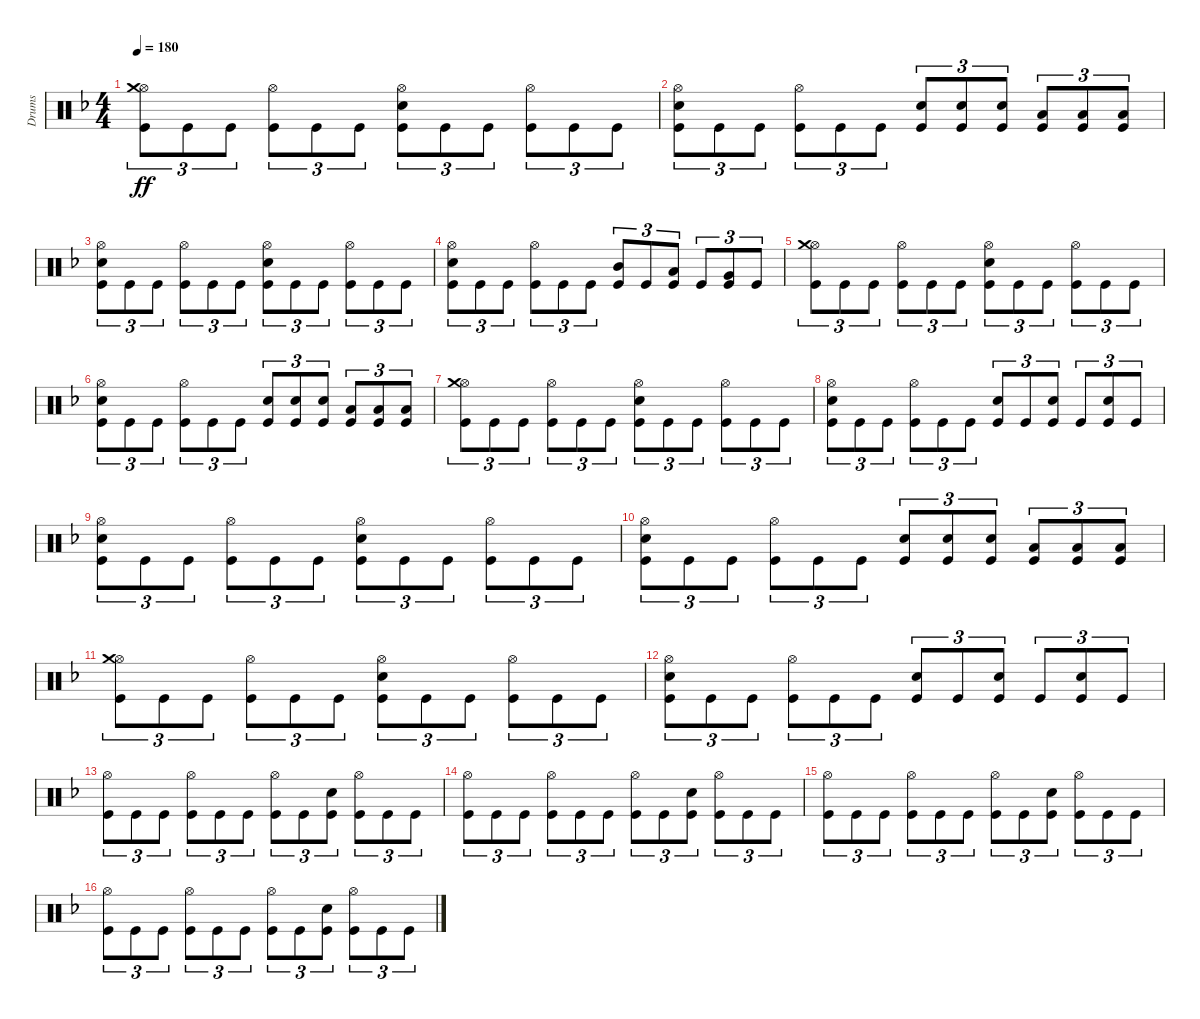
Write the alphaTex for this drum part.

\track ("Drums" "Drums") {instrument percussion}
\staff {score}
\articulation defaults
\ts (4 4)
\tempo 180
\clef neutral
\ks dminor
("Hi-Hat (open)" "Crash medium (hit)" "Kick (hit)").8{tu (3 2) dy ff} "Kick (hit)".8{tu (3 2)} "Kick (hit)".8{tu (3 2)} ("Hi-Hat (open)" "Kick (hit)").8{tu (3 2)} "Kick (hit)".8{tu (3 2)} "Kick (hit)".8{tu (3 2)} ("Hi-Hat (open)" "Snare (hit) 2" "Kick (hit)").8{tu (3 2)} "Kick (hit)".8{tu (3 2)} "Kick (hit)".8{tu (3 2)} ("Hi-Hat (open)" "Kick (hit)").8{tu (3 2)} "Kick (hit)".8{tu (3 2)} "Kick (hit)".8{tu (3 2)} |
("Hi-Hat (open)" "Snare (hit) 2" "Kick (hit)").8{tu (3 2)} "Kick (hit)".8{tu (3 2)} "Kick (hit)".8{tu (3 2)} ("Hi-Hat (open)" "Kick (hit)").8{tu (3 2)} "Kick (hit)".8{tu (3 2)} "Kick (hit)".8{tu (3 2)} ("Snare (hit) 2" "Kick (hit)").8{tu (3 2)} ("Snare (hit) 2" "Kick (hit)").8{tu (3 2)} ("Snare (hit) 2" "Kick (hit)").8{tu (3 2)} ("Low Tom (hit)" "Kick (hit)").8{tu (3 2)} ("Low Tom (hit)" "Kick (hit)").8{tu (3 2)} ("Low Tom (hit)" "Kick (hit)").8{tu (3 2)} |
("Hi-Hat (open)" "Snare (hit) 2" "Kick (hit)").8{tu (3 2)} "Kick (hit)".8{tu (3 2)} "Kick (hit)".8{tu (3 2)} ("Hi-Hat (open)" "Kick (hit)").8{tu (3 2)} "Kick (hit)".8{tu (3 2)} "Kick (hit)".8{tu (3 2)} ("Hi-Hat (open)" "Snare (hit) 2" "Kick (hit)").8{tu (3 2)} "Kick (hit)".8{tu (3 2)} "Kick (hit)".8{tu (3 2)} ("Hi-Hat (open)" "Kick (hit)").8{tu (3 2)} "Kick (hit)".8{tu (3 2)} "Kick (hit)".8{tu (3 2)} |
("Hi-Hat (open)" "Snare (hit) 2" "Kick (hit)").8{tu (3 2)} "Kick (hit)".8{tu (3 2)} "Kick (hit)".8{tu (3 2)} ("Hi-Hat (open)" "Kick (hit)").8{tu (3 2)} "Kick (hit)".8{tu (3 2)} "Kick (hit)".8{tu (3 2)} ("Mid Tom (hit)" "Kick (hit)").8{tu (3 2)} "Kick (hit)".8{tu (3 2)} ("Low Tom (hit)" "Kick (hit)").8{tu (3 2)} "Kick (hit)".8{tu (3 2)} ("Very Low Tom (hit)" "Kick (hit)").8{tu (3 2)} "Kick (hit)".8{tu (3 2)} |
("Hi-Hat (open)" "Crash medium (hit)" "Kick (hit)").8{tu (3 2)} "Kick (hit)".8{tu (3 2)} "Kick (hit)".8{tu (3 2)} ("Hi-Hat (open)" "Kick (hit)").8{tu (3 2)} "Kick (hit)".8{tu (3 2)} "Kick (hit)".8{tu (3 2)} ("Hi-Hat (open)" "Snare (hit) 2" "Kick (hit)").8{tu (3 2)} "Kick (hit)".8{tu (3 2)} "Kick (hit)".8{tu (3 2)} ("Hi-Hat (open)" "Kick (hit)").8{tu (3 2)} "Kick (hit)".8{tu (3 2)} "Kick (hit)".8{tu (3 2)} |
("Hi-Hat (open)" "Snare (hit) 2" "Kick (hit)").8{tu (3 2)} "Kick (hit)".8{tu (3 2)} "Kick (hit)".8{tu (3 2)} ("Hi-Hat (open)" "Kick (hit)").8{tu (3 2)} "Kick (hit)".8{tu (3 2)} "Kick (hit)".8{tu (3 2)} ("Snare (hit) 2" "Kick (hit)").8{tu (3 2)} ("Snare (hit) 2" "Kick (hit)").8{tu (3 2)} ("Snare (hit) 2" "Kick (hit)").8{tu (3 2)} ("Low Tom (hit)" "Kick (hit)").8{tu (3 2)} ("Low Tom (hit)" "Kick (hit)").8{tu (3 2)} ("Low Tom (hit)" "Kick (hit)").8{tu (3 2)} |
("Hi-Hat (open)" "Crash medium (hit)" "Kick (hit)").8{tu (3 2)} "Kick (hit)".8{tu (3 2)} "Kick (hit)".8{tu (3 2)} ("Hi-Hat (open)" "Kick (hit)").8{tu (3 2)} "Kick (hit)".8{tu (3 2)} "Kick (hit)".8{tu (3 2)} ("Hi-Hat (open)" "Snare (hit) 2" "Kick (hit)").8{tu (3 2)} "Kick (hit)".8{tu (3 2)} "Kick (hit)".8{tu (3 2)} ("Hi-Hat (open)" "Kick (hit)").8{tu (3 2)} "Kick (hit)".8{tu (3 2)} "Kick (hit)".8{tu (3 2)} |
("Hi-Hat (open)" "Snare (hit) 2" "Kick (hit)").8{tu (3 2)} "Kick (hit)".8{tu (3 2)} "Kick (hit)".8{tu (3 2)} ("Hi-Hat (open)" "Kick (hit)").8{tu (3 2)} "Kick (hit)".8{tu (3 2)} "Kick (hit)".8{tu (3 2)} ("Snare (hit) 2" "Kick (hit)").8{tu (3 2)} "Kick (hit)".8{tu (3 2)} ("Snare (hit) 2" "Kick (hit)").8{tu (3 2)} "Kick (hit)".8{tu (3 2)} ("Snare (hit) 2" "Kick (hit)").8{tu (3 2)} "Kick (hit)".8{tu (3 2)} |
("Hi-Hat (open)" "Snare (hit) 2" "Kick (hit)").8{tu (3 2)} "Kick (hit)".8{tu (3 2)} "Kick (hit)".8{tu (3 2)} ("Hi-Hat (open)" "Kick (hit)").8{tu (3 2)} "Kick (hit)".8{tu (3 2)} "Kick (hit)".8{tu (3 2)} ("Hi-Hat (open)" "Snare (hit) 2" "Kick (hit)").8{tu (3 2)} "Kick (hit)".8{tu (3 2)} "Kick (hit)".8{tu (3 2)} ("Hi-Hat (open)" "Kick (hit)").8{tu (3 2)} "Kick (hit)".8{tu (3 2)} "Kick (hit)".8{tu (3 2)} |
("Hi-Hat (open)" "Snare (hit) 2" "Kick (hit)").8{tu (3 2)} "Kick (hit)".8{tu (3 2)} "Kick (hit)".8{tu (3 2)} ("Hi-Hat (open)" "Kick (hit)").8{tu (3 2)} "Kick (hit)".8{tu (3 2)} "Kick (hit)".8{tu (3 2)} ("Snare (hit) 2" "Kick (hit)").8{tu (3 2)} ("Snare (hit) 2" "Kick (hit)").8{tu (3 2)} ("Snare (hit) 2" "Kick (hit)").8{tu (3 2)} ("Low Tom (hit)" "Kick (hit)").8{tu (3 2)} ("Low Tom (hit)" "Kick (hit)").8{tu (3 2)} ("Low Tom (hit)" "Kick (hit)").8{tu (3 2)} |
("Hi-Hat (open)" "Crash medium (hit)" "Kick (hit)").8{tu (3 2)} "Kick (hit)".8{tu (3 2)} "Kick (hit)".8{tu (3 2)} ("Hi-Hat (open)" "Kick (hit)").8{tu (3 2)} "Kick (hit)".8{tu (3 2)} "Kick (hit)".8{tu (3 2)} ("Hi-Hat (open)" "Snare (hit) 2" "Kick (hit)").8{tu (3 2)} "Kick (hit)".8{tu (3 2)} "Kick (hit)".8{tu (3 2)} ("Hi-Hat (open)" "Kick (hit)").8{tu (3 2)} "Kick (hit)".8{tu (3 2)} "Kick (hit)".8{tu (3 2)} |
("Hi-Hat (open)" "Snare (hit) 2" "Kick (hit)").8{tu (3 2)} "Kick (hit)".8{tu (3 2)} "Kick (hit)".8{tu (3 2)} ("Hi-Hat (open)" "Kick (hit)").8{tu (3 2)} "Kick (hit)".8{tu (3 2)} "Kick (hit)".8{tu (3 2)} ("Snare (hit) 2" "Kick (hit)").8{tu (3 2)} "Kick (hit)".8{tu (3 2)} ("Snare (hit) 2" "Kick (hit)").8{tu (3 2)} "Kick (hit)".8{tu (3 2)} ("Snare (hit) 2" "Kick (hit)").8{tu (3 2)} "Kick (hit)".8{tu (3 2)} |
("Hi-Hat (open)" "Kick (hit)").8{tu (3 2)} "Kick (hit)".8{tu (3 2)} "Kick (hit)".8{tu (3 2)} ("Hi-Hat (open)" "Kick (hit)").8{tu (3 2)} "Kick (hit)".8{tu (3 2)} "Kick (hit)".8{tu (3 2)} ("Hi-Hat (open)" "Kick (hit)").8{tu (3 2)} "Kick (hit)".8{tu (3 2)} ("Snare (hit) 2" "Kick (hit)").8{tu (3 2)} ("Hi-Hat (open)" "Kick (hit)").8{tu (3 2)} "Kick (hit)".8{tu (3 2)} "Kick (hit)".8{tu (3 2)} |
("Hi-Hat (open)" "Kick (hit)").8{tu (3 2)} "Kick (hit)".8{tu (3 2)} "Kick (hit)".8{tu (3 2)} ("Hi-Hat (open)" "Kick (hit)").8{tu (3 2)} "Kick (hit)".8{tu (3 2)} "Kick (hit)".8{tu (3 2)} ("Hi-Hat (open)" "Kick (hit)").8{tu (3 2)} "Kick (hit)".8{tu (3 2)} ("Snare (hit) 2" "Kick (hit)").8{tu (3 2)} ("Hi-Hat (open)" "Kick (hit)").8{tu (3 2)} "Kick (hit)".8{tu (3 2)} "Kick (hit)".8{tu (3 2)} |
("Hi-Hat (open)" "Kick (hit)").8{tu (3 2)} "Kick (hit)".8{tu (3 2)} "Kick (hit)".8{tu (3 2)} ("Hi-Hat (open)" "Kick (hit)").8{tu (3 2)} "Kick (hit)".8{tu (3 2)} "Kick (hit)".8{tu (3 2)} ("Hi-Hat (open)" "Kick (hit)").8{tu (3 2)} "Kick (hit)".8{tu (3 2)} ("Snare (hit) 2" "Kick (hit)").8{tu (3 2)} ("Hi-Hat (open)" "Kick (hit)").8{tu (3 2)} "Kick (hit)".8{tu (3 2)} "Kick (hit)".8{tu (3 2)} |
("Hi-Hat (open)" "Kick (hit)").8{tu (3 2)} "Kick (hit)".8{tu (3 2)} "Kick (hit)".8{tu (3 2)} ("Hi-Hat (open)" "Kick (hit)").8{tu (3 2)} "Kick (hit)".8{tu (3 2)} "Kick (hit)".8{tu (3 2)} ("Hi-Hat (open)" "Kick (hit)").8{tu (3 2)} "Kick (hit)".8{tu (3 2)} ("Snare (hit) 2" "Kick (hit)").8{tu (3 2)} ("Hi-Hat (open)" "Kick (hit)").8{tu (3 2)} "Kick (hit)".8{tu (3 2)} "Kick (hit)".8{tu (3 2)}
